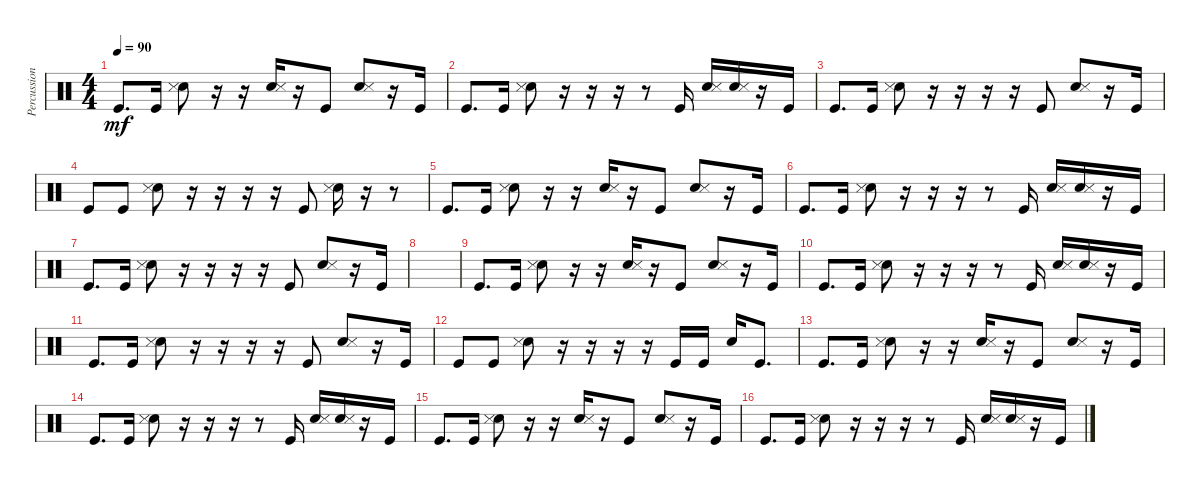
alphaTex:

\track ("Percussion" "Percussion") {instrument percussion}
\staff {score}
\articulation defaults
\ts (4 4)
\tempo 90
\clef neutral
\ks c "Kick (hit)".8{d dy mf} "Kick (hit)".16
("Hand Clap (hit)" "Snare (side stick) 3").8 r.16 r.16 ("Hand Clap (hit)" "Snare (side stick) 3").16 r.16 "Kick (hit)".8 ("Hand Clap (hit)" "Snare (side stick) 3").8 r.16 "Kick (hit)".16 |
"Kick (hit)".8{d} "Kick (hit)".16 ("Hand Clap (hit)" "Snare (side stick) 3").8 r.16 r.16 r.16 r.8 "Kick (hit)".16 ("Hand Clap (hit)" "Snare (side stick) 3").16 ("Hand Clap (hit)" "Snare (side stick) 3").16 r.16 "Kick (hit)".16 |
"Kick (hit)".8{d} "Kick (hit)".16 ("Hand Clap (hit)" "Snare (side stick) 3").8 r.16 r.16 r.16 r.16 "Kick (hit)".8 ("Hand Clap (hit)" "Snare (side stick) 3").8 r.16 "Kick (hit)".16 |
"Kick (hit)".8 "Kick (hit)".8 ("Hand Clap (hit)" "Snare (side stick) 3").8 r.16 r.16 r.16 r.16 "Kick (hit)".8 ("Hand Clap (hit)" "Snare (side stick) 3").16 r.16 r.8 |
"Kick (hit)".8{d} "Kick (hit)".16 ("Hand Clap (hit)" "Snare (side stick) 3").8 r.16 r.16 ("Hand Clap (hit)" "Snare (side stick) 3").16 r.16 "Kick (hit)".8 ("Hand Clap (hit)" "Snare (side stick) 3").8 r.16 "Kick (hit)".16 |
"Kick (hit)".8{d} "Kick (hit)".16 ("Hand Clap (hit)" "Snare (side stick) 3").8 r.16 r.16 r.16 r.8 "Kick (hit)".16 ("Hand Clap (hit)" "Snare (side stick) 3").16 ("Hand Clap (hit)" "Snare (side stick) 3").16 r.16 "Kick (hit)".16 |
"Kick (hit)".8{d} "Kick (hit)".16 ("Hand Clap (hit)" "Snare (side stick) 3").8 r.16 r.16 r.16 r.16 "Kick (hit)".8 ("Hand Clap (hit)" "Snare (side stick) 3").8 r.16 "Kick (hit)".16 |
|
"Kick (hit)".8{d} "Kick (hit)".16 ("Hand Clap (hit)" "Snare (side stick) 3").8 r.16 r.16 ("Hand Clap (hit)" "Snare (side stick) 3").16 r.16 "Kick (hit)".8 ("Hand Clap (hit)" "Snare (side stick) 3").8 r.16 "Kick (hit)".16 |
"Kick (hit)".8{d} "Kick (hit)".16 ("Hand Clap (hit)" "Snare (side stick) 3").8 r.16 r.16 r.16 r.8 "Kick (hit)".16 ("Hand Clap (hit)" "Snare (side stick) 3").16 ("Hand Clap (hit)" "Snare (side stick) 3").16 r.16 "Kick (hit)".16 |
"Kick (hit)".8{d} "Kick (hit)".16 ("Hand Clap (hit)" "Snare (side stick) 3").8 r.16 r.16 r.16 r.16 "Kick (hit)".8 ("Hand Clap (hit)" "Snare (side stick) 3").8 r.16 "Kick (hit)".16 |
"Kick (hit)".8 "Kick (hit)".8 ("Hand Clap (hit)" "Snare (side stick) 3").8 r.16 r.16 r.16 r.16 "Kick (hit)".16 "Kick (hit)".16 "Hand Clap (hit)".16 "Kick (hit)".8{d} |
"Kick (hit)".8{d} "Kick (hit)".16 ("Hand Clap (hit)" "Snare (side stick) 3").8 r.16 r.16 ("Hand Clap (hit)" "Snare (side stick) 3").16 r.16 "Kick (hit)".8 ("Hand Clap (hit)" "Snare (side stick) 3").8 r.16 "Kick (hit)".16 |
"Kick (hit)".8{d} "Kick (hit)".16 ("Hand Clap (hit)" "Snare (side stick) 3").8 r.16 r.16 r.16 r.8 "Kick (hit)".16 ("Hand Clap (hit)" "Snare (side stick) 3").16 ("Hand Clap (hit)" "Snare (side stick) 3").16 r.16 "Kick (hit)".16 |
"Kick (hit)".8{d} "Kick (hit)".16 ("Hand Clap (hit)" "Snare (side stick) 3").8 r.16 r.16 ("Hand Clap (hit)" "Snare (side stick) 3").16 r.16 "Kick (hit)".8 ("Hand Clap (hit)" "Snare (side stick) 3").8 r.16 "Kick (hit)".16 |
"Kick (hit)".8{d} "Kick (hit)".16 ("Hand Clap (hit)" "Snare (side stick) 3").8 r.16 r.16 r.16 r.8 "Kick (hit)".16 ("Hand Clap (hit)" "Snare (side stick) 3").16 ("Hand Clap (hit)" "Snare (side stick) 3").16 r.16 "Kick (hit)".16
